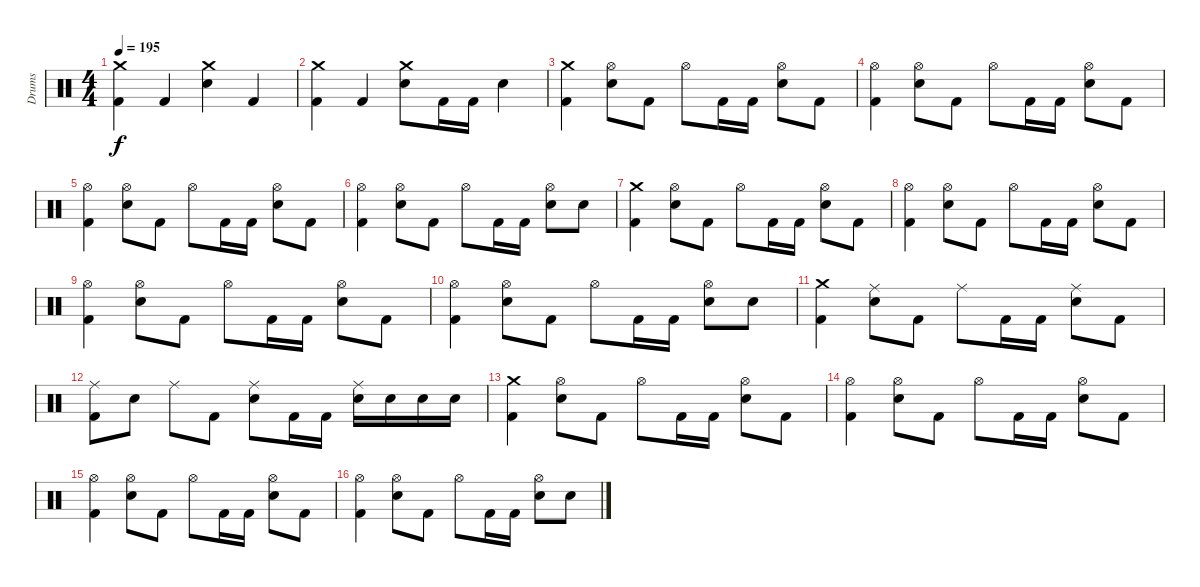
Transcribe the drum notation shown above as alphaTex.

\track ("Drums" "Drums") {instrument percussion}
\staff {score}
\articulation defaults
\ts (4 4)
\tempo 195
\clef neutral
\ks c
("Crash medium (hit)" "Kick (hit) 2").4{dy f} "Kick (hit) 2".4 ("Crash medium (hit)" "Electric Snare (hit)").4 "Kick (hit) 2".4 |
("Crash medium (hit)" "Kick (hit) 2").4 "Kick (hit) 2".4 ("Crash medium (hit)" "Electric Snare (hit)").8 "Kick (hit) 2".16 "Kick (hit) 2".16 "Electric Snare (hit)".4 |
("Crash medium (hit)" "Kick (hit) 2").4 ("Hi-Hat (open)" "Electric Snare (hit)").8 "Kick (hit) 2".8 "Hi-Hat (open)".8 "Kick (hit) 2".16 "Kick (hit) 2".16 ("Hi-Hat (open)" "Electric Snare (hit)").8 "Kick (hit) 2".8 |
("Hi-Hat (open)" "Kick (hit) 2").4 ("Hi-Hat (open)" "Electric Snare (hit)").8 "Kick (hit) 2".8 "Hi-Hat (open)".8 "Kick (hit) 2".16 "Kick (hit) 2".16 ("Hi-Hat (open)" "Electric Snare (hit)").8 "Kick (hit) 2".8 |
("Hi-Hat (open)" "Kick (hit) 2").4 ("Hi-Hat (open)" "Electric Snare (hit)").8 "Kick (hit) 2".8 "Hi-Hat (open)".8 "Kick (hit) 2".16 "Kick (hit) 2".16 ("Hi-Hat (open)" "Electric Snare (hit)").8 "Kick (hit) 2".8 |
("Hi-Hat (open)" "Kick (hit) 2").4 ("Hi-Hat (open)" "Electric Snare (hit)").8 "Kick (hit) 2".8 "Hi-Hat (open)".8 "Kick (hit) 2".16 "Kick (hit) 2".16 ("Hi-Hat (open)" "Electric Snare (hit)").8 "Electric Snare (hit)".8 |
("Crash medium (hit)" "Kick (hit) 2").4 ("Hi-Hat (open)" "Electric Snare (hit)").8 "Kick (hit) 2".8 "Hi-Hat (open)".8 "Kick (hit) 2".16 "Kick (hit) 2".16 ("Hi-Hat (open)" "Electric Snare (hit)").8 "Kick (hit) 2".8 |
("Hi-Hat (open)" "Kick (hit) 2").4 ("Hi-Hat (open)" "Electric Snare (hit)").8 "Kick (hit) 2".8 "Hi-Hat (open)".8 "Kick (hit) 2".16 "Kick (hit) 2".16 ("Hi-Hat (open)" "Electric Snare (hit)").8 "Kick (hit) 2".8 |
("Hi-Hat (open)" "Kick (hit) 2").4 ("Hi-Hat (open)" "Electric Snare (hit)").8 "Kick (hit) 2".8 "Hi-Hat (open)".8 "Kick (hit) 2".16 "Kick (hit) 2".16 ("Hi-Hat (open)" "Electric Snare (hit)").8 "Kick (hit) 2".8 |
("Hi-Hat (open)" "Kick (hit) 2").4 ("Hi-Hat (open)" "Electric Snare (hit)").8 "Kick (hit) 2".8 "Hi-Hat (open)".8 "Kick (hit) 2".16 "Kick (hit) 2".16 ("Hi-Hat (open)" "Electric Snare (hit)").8 "Electric Snare (hit)".8 |
("Crash medium (hit)" "Kick (hit) 2").4 ("Ride (middle)" "Electric Snare (hit)").8 "Kick (hit) 2".8 "Ride (middle)".8 "Kick (hit) 2".16 "Kick (hit) 2".16 ("Ride (middle)" "Electric Snare (hit)").8 "Kick (hit) 2".8 |
("Ride (middle)" "Kick (hit) 2").8 "Electric Snare (hit)".8 "Ride (middle)".8 "Kick (hit) 2".8 ("Ride (middle)" "Electric Snare (hit)").8 "Kick (hit) 2".16 "Kick (hit) 2".16 ("Ride (middle)" "Electric Snare (hit)").16 "Electric Snare (hit)".16 "Electric Snare (hit)".16 "Electric Snare (hit)".16 |
("Crash medium (hit)" "Kick (hit) 2").4 ("Hi-Hat (open)" "Electric Snare (hit)").8 "Kick (hit) 2".8 "Hi-Hat (open)".8 "Kick (hit) 2".16 "Kick (hit) 2".16 ("Hi-Hat (open)" "Electric Snare (hit)").8 "Kick (hit) 2".8 |
("Hi-Hat (open)" "Kick (hit) 2").4 ("Hi-Hat (open)" "Electric Snare (hit)").8 "Kick (hit) 2".8 "Hi-Hat (open)".8 "Kick (hit) 2".16 "Kick (hit) 2".16 ("Hi-Hat (open)" "Electric Snare (hit)").8 "Kick (hit) 2".8 |
("Hi-Hat (open)" "Kick (hit) 2").4 ("Hi-Hat (open)" "Electric Snare (hit)").8 "Kick (hit) 2".8 "Hi-Hat (open)".8 "Kick (hit) 2".16 "Kick (hit) 2".16 ("Hi-Hat (open)" "Electric Snare (hit)").8 "Kick (hit) 2".8 |
("Hi-Hat (open)" "Kick (hit) 2").4 ("Hi-Hat (open)" "Electric Snare (hit)").8 "Kick (hit) 2".8 "Hi-Hat (open)".8 "Kick (hit) 2".16 "Kick (hit) 2".16 ("Hi-Hat (open)" "Electric Snare (hit)").8 "Electric Snare (hit)".8
